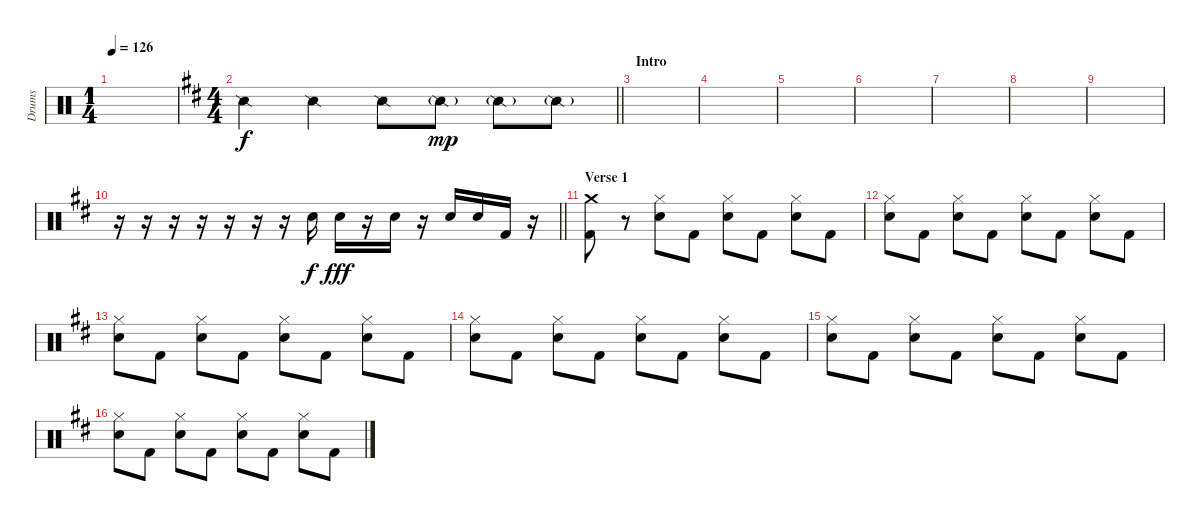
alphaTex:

\track ("Drums" "Drums") {instrument percussion}
\staff {score}
\articulation defaults
\ts (1 4)
\tempo 126
\clef neutral
\ks c
|
\ts (4 4)
\barLineRight lightlight
\ks d "Snare (side stick) 2".4 "Snare (side stick) 2".4 "Snare (side stick) 2".8 "Snare (side stick) 2"{g}.8{dy mp} "Snare (side stick) 2"{g}.8 "Snare (side stick) 2"{g}.8
|
\section ("" "Intro")
|
|
|
|
|
|
|
\barLineRight lightlight
r.16 r.16 r.16 r.16 r.16 r.16 r.16 "Snare (hit) 2".16{dy f} "Snare (hit) 2".16{dy fff} r.16 "Snare (hit) 2".16 r.16 "Snare (hit) 2".16 "Snare (hit) 2".16 "Kick (hit) 2".16 r.16 |
\section ("" "Verse 1")
("Crash medium (hit)" "Kick (hit) 2").8 r.8 ("Hi-Hat (closed)" "Snare (hit) 2").8 "Kick (hit) 2".8 ("Hi-Hat (closed)" "Snare (hit) 2").8 "Kick (hit) 2".8 ("Hi-Hat (closed)" "Snare (hit) 2").8 "Kick (hit) 2".8 |
("Hi-Hat (closed)" "Snare (hit) 2").8 "Kick (hit) 2".8 ("Hi-Hat (closed)" "Snare (hit) 2").8 "Kick (hit) 2".8 ("Hi-Hat (closed)" "Snare (hit) 2").8 "Kick (hit) 2".8 ("Hi-Hat (closed)" "Snare (hit) 2").8 "Kick (hit) 2".8 |
("Hi-Hat (closed)" "Snare (hit) 2").8 "Kick (hit) 2".8 ("Hi-Hat (closed)" "Snare (hit) 2").8 "Kick (hit) 2".8 ("Hi-Hat (closed)" "Snare (hit) 2").8 "Kick (hit) 2".8 ("Hi-Hat (closed)" "Snare (hit) 2").8 "Kick (hit) 2".8 |
("Hi-Hat (closed)" "Snare (hit) 2").8 "Kick (hit) 2".8 ("Hi-Hat (closed)" "Snare (hit) 2").8 "Kick (hit) 2".8 ("Hi-Hat (closed)" "Snare (hit) 2").8 "Kick (hit) 2".8 ("Hi-Hat (closed)" "Snare (hit) 2").8 "Kick (hit) 2".8 |
("Hi-Hat (closed)" "Snare (hit) 2").8 "Kick (hit) 2".8 ("Hi-Hat (closed)" "Snare (hit) 2").8 "Kick (hit) 2".8 ("Hi-Hat (closed)" "Snare (hit) 2").8 "Kick (hit) 2".8 ("Hi-Hat (closed)" "Snare (hit) 2").8 "Kick (hit) 2".8 |
("Hi-Hat (closed)" "Snare (hit) 2").8 "Kick (hit) 2".8 ("Hi-Hat (closed)" "Snare (hit) 2").8 "Kick (hit) 2".8 ("Hi-Hat (closed)" "Snare (hit) 2").8 "Kick (hit) 2".8 ("Hi-Hat (closed)" "Snare (hit) 2").8 "Kick (hit) 2".8
